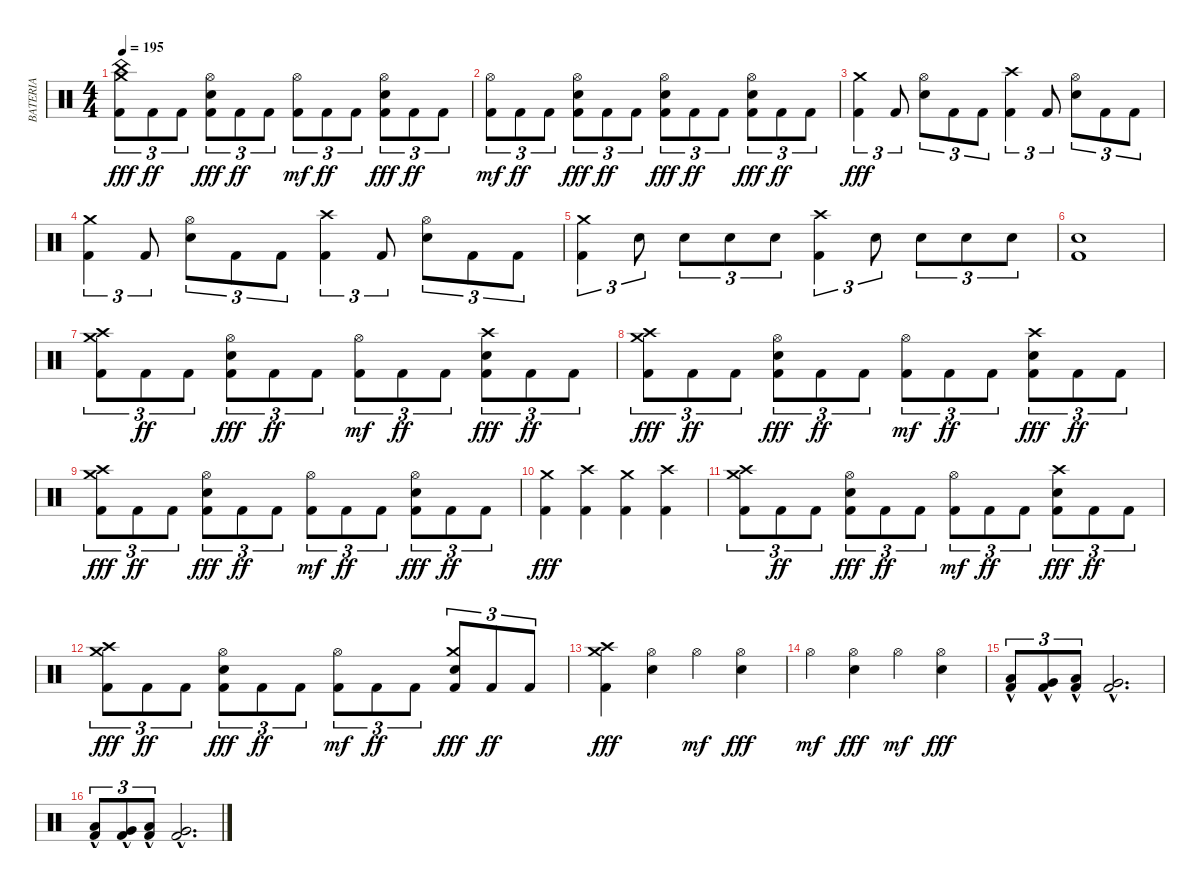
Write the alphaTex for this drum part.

\track ("BATERIA" "BATERIA") {instrument percussion}
\staff
\articulation defaults
\ts (4 4)
\tempo 195
\clef neutral
\ks c
("Kick (hit) 2" "Crash medium (hit)" "China (hit)").8{tu (3 2) dy fff} "Kick (hit) 2".8{tu (3 2) dy ff} "Kick (hit) 2".8{tu (3 2)} ("Kick (hit) 2" "Electric Snare (hit)" "Hi-Hat (open)").8{tu (3 2) dy fff} "Kick (hit) 2".8{tu (3 2) dy ff} "Kick (hit) 2".8{tu (3 2)} ("Kick (hit) 2" "Hi-Hat (open)").8{tu (3 2) dy mf} "Kick (hit) 2".8{tu (3 2) dy ff} "Kick (hit) 2".8{tu (3 2)} ("Kick (hit) 2" "Electric Snare (hit)" "Hi-Hat (open)").8{tu (3 2) dy fff} "Kick (hit) 2".8{tu (3 2) dy ff} "Kick (hit) 2".8{tu (3 2)} |
("Kick (hit) 2" "Hi-Hat (open)").8{tu (3 2) dy mf} "Kick (hit) 2".8{tu (3 2) dy ff} "Kick (hit) 2".8{tu (3 2)} ("Kick (hit) 2" "Electric Snare (hit)" "Hi-Hat (open)").8{tu (3 2) dy fff} "Kick (hit) 2".8{tu (3 2) dy ff} "Kick (hit) 2".8{tu (3 2)} ("Kick (hit) 2" "Electric Snare (hit)" "Hi-Hat (open)").8{tu (3 2) dy fff} "Kick (hit) 2".8{tu (3 2) dy ff} "Kick (hit) 2".8{tu (3 2)} ("Kick (hit) 2" "Electric Snare (hit)" "Hi-Hat (open)").8{tu (3 2) dy fff} "Kick (hit) 2".8{tu (3 2) dy ff} "Kick (hit) 2".8{tu (3 2)} |
("Kick (hit) 2" "Crash medium (hit)").4{tu (3 2) dy fff} "Kick (hit) 2".8{tu (3 2)} ("Electric Snare (hit)" "Hi-Hat (open)").8{tu (3 2)} "Kick (hit) 2".8{tu (3 2)} "Kick (hit) 2".8{tu (3 2)} ("Kick (hit) 2" "Crash high (hit)").4{tu (3 2)} "Kick (hit) 2".8{tu (3 2)} ("Electric Snare (hit)" "Hi-Hat (open)").8{tu (3 2)} "Kick (hit) 2".8{tu (3 2)} "Kick (hit) 2".8{tu (3 2)} |
("Kick (hit) 2" "Crash medium (hit)").4{tu (3 2)} "Kick (hit) 2".8{tu (3 2)} ("Electric Snare (hit)" "Hi-Hat (open)").8{tu (3 2)} "Kick (hit) 2".8{tu (3 2)} "Kick (hit) 2".8{tu (3 2)} ("Kick (hit) 2" "Crash high (hit)").4{tu (3 2)} "Kick (hit) 2".8{tu (3 2)} ("Electric Snare (hit)" "Hi-Hat (open)").8{tu (3 2)} "Kick (hit) 2".8{tu (3 2)} "Kick (hit) 2".8{tu (3 2)} |
("Kick (hit) 2" "Crash medium (hit)").4{tu (3 2)} "Electric Snare (hit)".8{tu (3 2)} "Electric Snare (hit)".8{tu (3 2)} "Electric Snare (hit)".8{tu (3 2)} "Electric Snare (hit)".8{tu (3 2)} ("Kick (hit) 2" "Crash high (hit)").4{tu (3 2)} "Electric Snare (hit)".8{tu (3 2)} "Electric Snare (hit)".8{tu (3 2)} "Electric Snare (hit)".8{tu (3 2)} "Electric Snare (hit)".8{tu (3 2)} |
("Kick (hit) 2" "Electric Snare (hit)").1 |
("Kick (hit) 2" "Crash medium (hit)" "Crash high (hit)").8{tu (3 2)} "Kick (hit) 2".8{tu (3 2) dy ff} "Kick (hit) 2".8{tu (3 2)} ("Kick (hit) 2" "Electric Snare (hit)" "Hi-Hat (open)").8{tu (3 2) dy fff} "Kick (hit) 2".8{tu (3 2) dy ff} "Kick (hit) 2".8{tu (3 2)} ("Kick (hit) 2" "Hi-Hat (open)").8{tu (3 2) dy mf} "Kick (hit) 2".8{tu (3 2) dy ff} "Kick (hit) 2".8{tu (3 2)} ("Kick (hit) 2" "Electric Snare (hit)" "Crash high (hit)").8{tu (3 2) dy fff} "Kick (hit) 2".8{tu (3 2) dy ff} "Kick (hit) 2".8{tu (3 2)} |
("Kick (hit) 2" "Crash medium (hit)" "Crash high (hit)").8{tu (3 2) dy fff} "Kick (hit) 2".8{tu (3 2) dy ff} "Kick (hit) 2".8{tu (3 2)} ("Kick (hit) 2" "Electric Snare (hit)" "Hi-Hat (open)").8{tu (3 2) dy fff} "Kick (hit) 2".8{tu (3 2) dy ff} "Kick (hit) 2".8{tu (3 2)} ("Kick (hit) 2" "Hi-Hat (open)").8{tu (3 2) dy mf} "Kick (hit) 2".8{tu (3 2) dy ff} "Kick (hit) 2".8{tu (3 2)} ("Kick (hit) 2" "Electric Snare (hit)" "Crash high (hit)").8{tu (3 2) dy fff} "Kick (hit) 2".8{tu (3 2) dy ff} "Kick (hit) 2".8{tu (3 2)} |
("Kick (hit) 2" "Crash medium (hit)" "Crash high (hit)").8{tu (3 2) dy fff} "Kick (hit) 2".8{tu (3 2) dy ff} "Kick (hit) 2".8{tu (3 2)} ("Kick (hit) 2" "Electric Snare (hit)" "Hi-Hat (open)").8{tu (3 2) dy fff} "Kick (hit) 2".8{tu (3 2) dy ff} "Kick (hit) 2".8{tu (3 2)} ("Kick (hit) 2" "Hi-Hat (open)").8{tu (3 2) dy mf} "Kick (hit) 2".8{tu (3 2) dy ff} "Kick (hit) 2".8{tu (3 2)} ("Kick (hit) 2" "Electric Snare (hit)" "Hi-Hat (open)").8{tu (3 2) dy fff} "Kick (hit) 2".8{tu (3 2) dy ff} "Kick (hit) 2".8{tu (3 2)} |
("Kick (hit) 2" "Crash medium (hit)").4{dy fff} ("Kick (hit) 2" "Crash high (hit)").4 ("Kick (hit) 2" "Crash medium (hit)").4 ("Kick (hit) 2" "Crash high (hit)").4 |
("Kick (hit) 2" "Crash medium (hit)" "Crash high (hit)").8{tu (3 2)} "Kick (hit) 2".8{tu (3 2) dy ff} "Kick (hit) 2".8{tu (3 2)} ("Kick (hit) 2" "Electric Snare (hit)" "Hi-Hat (open)").8{tu (3 2) dy fff} "Kick (hit) 2".8{tu (3 2) dy ff} "Kick (hit) 2".8{tu (3 2)} ("Kick (hit) 2" "Hi-Hat (open)").8{tu (3 2) dy mf} "Kick (hit) 2".8{tu (3 2) dy ff} "Kick (hit) 2".8{tu (3 2)} ("Kick (hit) 2" "Electric Snare (hit)" "Crash high (hit)").8{tu (3 2) dy fff} "Kick (hit) 2".8{tu (3 2) dy ff} "Kick (hit) 2".8{tu (3 2)} |
("Kick (hit) 2" "Crash medium (hit)" "Crash high (hit)").8{tu (3 2) dy fff} "Kick (hit) 2".8{tu (3 2) dy ff} "Kick (hit) 2".8{tu (3 2)} ("Kick (hit) 2" "Electric Snare (hit)" "Hi-Hat (open)").8{tu (3 2) dy fff} "Kick (hit) 2".8{tu (3 2) dy ff} "Kick (hit) 2".8{tu (3 2)} ("Kick (hit) 2" "Hi-Hat (open)").8{tu (3 2) dy mf} "Kick (hit) 2".8{tu (3 2) dy ff} "Kick (hit) 2".8{tu (3 2)} ("Kick (hit) 2" "Electric Snare (hit)" "Crash medium (hit)").8{tu (3 2) dy fff} "Kick (hit) 2".8{tu (3 2) dy ff} "Kick (hit) 2".8{tu (3 2)} |
("Kick (hit) 2" "Crash high (hit)" "Crash medium (hit)").4{dy fff} ("Electric Snare (hit)" "Hi-Hat (open)").4 "Hi-Hat (open)".4{dy mf} ("Electric Snare (hit)" "Hi-Hat (open)").4{dy fff} |
"Hi-Hat (open)".4{dy mf} ("Electric Snare (hit)" "Hi-Hat (open)").4{dy fff} "Hi-Hat (open)".4{dy mf} ("Electric Snare (hit)" "Hi-Hat (open)").4{dy fff} |
("Kick (hit) 2" "Low Floor Tom (hit)"{hac}).8{tu (3 2)} ("Kick (hit) 2" "Very Low Tom (hit)"{hac}).8{tu (3 2)} ("Kick (hit) 2" "Low Floor Tom (hit)"{hac}).8{tu (3 2)} ("Kick (hit) 2" "Very Low Tom (hit)"{hac}).2{d} |
("Kick (hit) 2" "Low Floor Tom (hit)"{hac}).8{tu (3 2)} ("Kick (hit) 2" "Very Low Tom (hit)"{hac}).8{tu (3 2)} ("Kick (hit) 2" "Low Floor Tom (hit)"{hac}).8{tu (3 2)} ("Kick (hit) 2" "Very Low Tom (hit)"{hac}).2{d}
